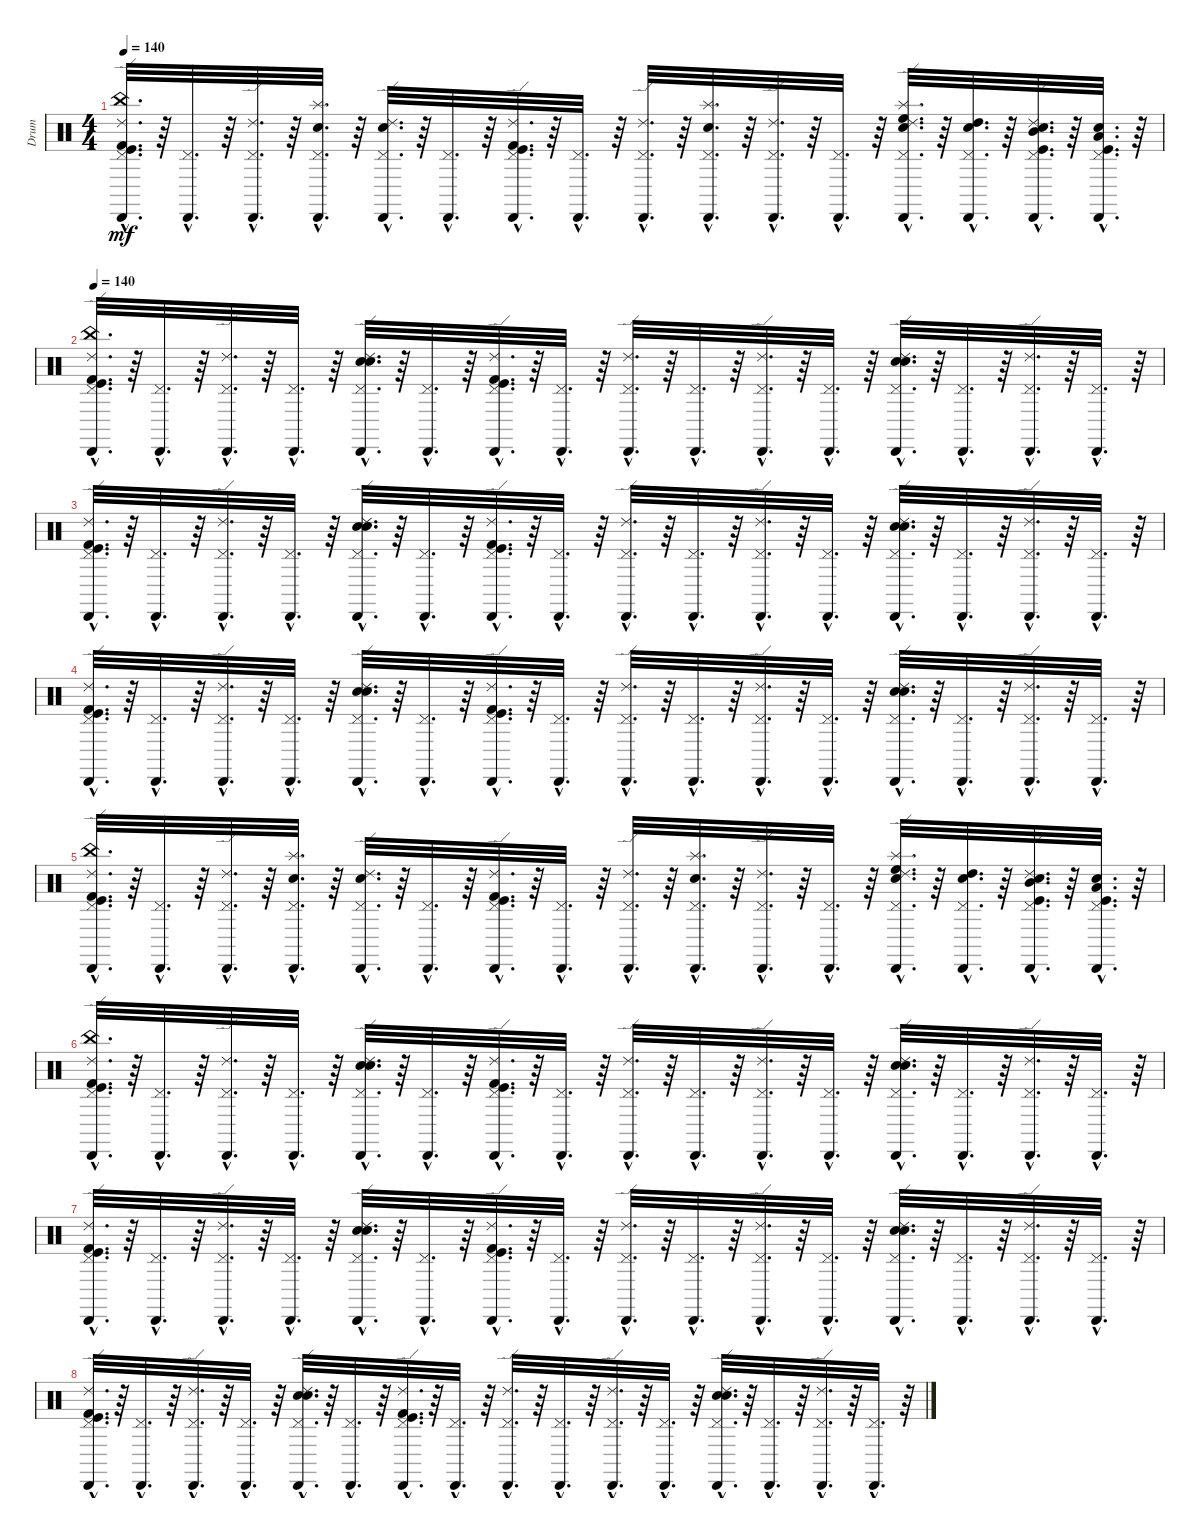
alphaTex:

\track ("Drum" "Drum") {instrument percussion}
\staff {score}
\articulation defaults
\ts (4 4)
\tempo 140
\clef neutral
\ks c
("China (hit)"{hac} "Cabasa (hit)"{hac} "Ride (edge) 2"{hac} "Kick (hit) 2"{hac} "Kick (hit)"{hac} "Pedal Hi-Hat (hit)"{hac}).32{d dy mf} r.64 ("Pedal Hi-Hat (hit)"{hac} "Cabasa (hit)"{hac}).32{d} r.64 ("Ride (edge) 2"{hac} "Cabasa (hit)"{hac} "Pedal Hi-Hat (hit)"{hac}).32{d} r.64 ("Splash (hit)"{hac} "Snare (hit) 2"{hac} "Pedal Hi-Hat (hit)"{hac} "Cabasa (hit)"{hac}).32{d} r.64 ("Snare (hit) 2"{hac} "Ride (edge) 2"{hac} "Cabasa (hit)"{hac} "Pedal Hi-Hat (hit)"{hac}).32{d} r.64 ("Cabasa (hit)"{hac} "Pedal Hi-Hat (hit)"{hac}).32{d} r.64 ("Ride (edge) 2"{hac} "Cabasa (hit)"{hac} "Kick (hit)"{hac} "Kick (hit) 2"{hac} "Pedal Hi-Hat (hit)"{hac}).32{d} r.64 ("Pedal Hi-Hat (hit)"{hac} "Cabasa (hit)"{hac}).32{d} r.64 ("Cabasa (hit)"{hac} "Pedal Hi-Hat (hit)"{hac} "Ride (edge) 2"{hac}).32{d} r.64 ("Splash (hit)"{hac} "Snare (hit) 2"{hac} "Pedal Hi-Hat (hit)"{hac} "Cabasa (hit)"{hac}).32{d} r.64 ("Pedal Hi-Hat (hit)"{hac} "Cabasa (hit)"{hac} "Ride (edge) 2"{hac}).32{d} r.64 ("Pedal Hi-Hat (hit)"{hac} "Cabasa (hit)"{hac}).32{d} r.64 ("High Floor Tom (hit)"{hac} "Splash (hit)"{hac} "Snare (hit) 2"{hac} "Ride (edge) 2"{hac} "Cabasa (hit)"{hac} "Pedal Hi-Hat (hit)"{hac}).32{d} r.64 ("High Tom (hit)"{hac} "Snare (hit) 2"{hac} "Pedal Hi-Hat (hit)"{hac} "Cabasa (hit)"{hac}).32{d} r.64 ("Kick (hit)"{hac} "Mid Tom (hit)"{hac} "Snare (hit) 2"{hac} "Ride (edge) 2"{hac} "Cabasa (hit)"{hac} "Pedal Hi-Hat (hit)"{hac}).32{d} r.64 ("Kick (hit)"{hac} "Low Tom (hit)"{hac} "Snare (hit) 2"{hac} "Pedal Hi-Hat (hit)"{hac} "Cabasa (hit)"{hac}).32{d} r.64 |
\tempo 140
("China (hit)"{hac} "Kick (hit) 2"{hac} "Kick (hit)"{hac} "Ride (edge) 2"{hac} "Cabasa (hit)"{hac} "Pedal Hi-Hat (hit)"{hac}).32{d} r.64 ("Cabasa (hit)"{hac} "Pedal Hi-Hat (hit)"{hac}).32{d} r.64 ("Ride (edge) 2"{hac} "Cabasa (hit)"{hac} "Pedal Hi-Hat (hit)"{hac}).32{d} r.64 ("Cabasa (hit)"{hac} "Pedal Hi-Hat (hit)"{hac}).32{d} r.64 ("Snare (hit) 2"{hac} "Electric Snare (hit)"{hac} "Ride (edge) 2"{hac} "Cabasa (hit)"{hac} "Pedal Hi-Hat (hit)"{hac}).32{d} r.64 ("Cabasa (hit)"{hac} "Pedal Hi-Hat (hit)"{hac}).32{d} r.64 ("Kick (hit)"{hac} "Kick (hit) 2"{hac} "Ride (edge) 2"{hac} "Cabasa (hit)"{hac} "Pedal Hi-Hat (hit)"{hac}).32{d} r.64 ("Cabasa (hit)"{hac} "Pedal Hi-Hat (hit)"{hac}).32{d} r.64 ("Ride (edge) 2"{hac} "Cabasa (hit)"{hac} "Pedal Hi-Hat (hit)"{hac}).32{d} r.64 ("Cabasa (hit)"{hac} "Pedal Hi-Hat (hit)"{hac}).32{d} r.64 ("Ride (edge) 2"{hac} "Cabasa (hit)"{hac} "Pedal Hi-Hat (hit)"{hac}).32{d} r.64 ("Cabasa (hit)"{hac} "Pedal Hi-Hat (hit)"{hac}).32{d} r.64 ("Electric Snare (hit)"{hac} "Snare (hit) 2"{hac} "Ride (edge) 2"{hac} "Cabasa (hit)"{hac} "Pedal Hi-Hat (hit)"{hac}).32{d} r.64 ("Cabasa (hit)"{hac} "Pedal Hi-Hat (hit)"{hac}).32{d} r.64 ("Ride (edge) 2"{hac} "Cabasa (hit)"{hac} "Pedal Hi-Hat (hit)"{hac}).32{d} r.64 ("Cabasa (hit)"{hac} "Pedal Hi-Hat (hit)"{hac}).32{d} r.64 |
("Pedal Hi-Hat (hit)"{hac} "Cabasa (hit)"{hac} "Ride (edge) 2"{hac} "Kick (hit)"{hac} "Kick (hit) 2"{hac}).32{d} r.64 ("Pedal Hi-Hat (hit)"{hac} "Cabasa (hit)"{hac}).32{d} r.64 ("Pedal Hi-Hat (hit)"{hac} "Cabasa (hit)"{hac} "Ride (edge) 2"{hac}).32{d} r.64 ("Pedal Hi-Hat (hit)"{hac} "Cabasa (hit)"{hac}).32{d} r.64 ("Pedal Hi-Hat (hit)"{hac} "Cabasa (hit)"{hac} "Ride (edge) 2"{hac} "Electric Snare (hit)"{hac} "Snare (hit) 2"{hac}).32{d} r.64 ("Pedal Hi-Hat (hit)"{hac} "Cabasa (hit)"{hac}).32{d} r.64 ("Pedal Hi-Hat (hit)"{hac} "Cabasa (hit)"{hac} "Ride (edge) 2"{hac} "Kick (hit) 2"{hac} "Kick (hit)"{hac}).32{d} r.64 ("Pedal Hi-Hat (hit)"{hac} "Cabasa (hit)"{hac}).32{d} r.64 ("Pedal Hi-Hat (hit)"{hac} "Cabasa (hit)"{hac} "Ride (edge) 2"{hac}).32{d} r.64 ("Pedal Hi-Hat (hit)"{hac} "Cabasa (hit)"{hac}).32{d} r.64 ("Pedal Hi-Hat (hit)"{hac} "Cabasa (hit)"{hac} "Ride (edge) 2"{hac}).32{d} r.64 ("Pedal Hi-Hat (hit)"{hac} "Cabasa (hit)"{hac}).32{d} r.64 ("Pedal Hi-Hat (hit)"{hac} "Cabasa (hit)"{hac} "Ride (edge) 2"{hac} "Snare (hit) 2"{hac} "Electric Snare (hit)"{hac}).32{d} r.64 ("Pedal Hi-Hat (hit)"{hac} "Cabasa (hit)"{hac}).32{d} r.64 ("Pedal Hi-Hat (hit)"{hac} "Cabasa (hit)"{hac} "Ride (edge) 2"{hac}).32{d} r.64 ("Pedal Hi-Hat (hit)"{hac} "Cabasa (hit)"{hac}).32{d} r.64 |
("Kick (hit) 2"{hac} "Kick (hit)"{hac} "Ride (edge) 2"{hac} "Cabasa (hit)"{hac} "Pedal Hi-Hat (hit)"{hac}).32{d} r.64 ("Cabasa (hit)"{hac} "Pedal Hi-Hat (hit)"{hac}).32{d} r.64 ("Ride (edge) 2"{hac} "Cabasa (hit)"{hac} "Pedal Hi-Hat (hit)"{hac}).32{d} r.64 ("Cabasa (hit)"{hac} "Pedal Hi-Hat (hit)"{hac}).32{d} r.64 ("Snare (hit) 2"{hac} "Electric Snare (hit)"{hac} "Ride (edge) 2"{hac} "Cabasa (hit)"{hac} "Pedal Hi-Hat (hit)"{hac}).32{d} r.64 ("Cabasa (hit)"{hac} "Pedal Hi-Hat (hit)"{hac}).32{d} r.64 ("Kick (hit)"{hac} "Kick (hit) 2"{hac} "Ride (edge) 2"{hac} "Cabasa (hit)"{hac} "Pedal Hi-Hat (hit)"{hac}).32{d} r.64 ("Cabasa (hit)"{hac} "Pedal Hi-Hat (hit)"{hac}).32{d} r.64 ("Ride (edge) 2"{hac} "Cabasa (hit)"{hac} "Pedal Hi-Hat (hit)"{hac}).32{d} r.64 ("Cabasa (hit)"{hac} "Pedal Hi-Hat (hit)"{hac}).32{d} r.64 ("Ride (edge) 2"{hac} "Cabasa (hit)"{hac} "Pedal Hi-Hat (hit)"{hac}).32{d} r.64 ("Cabasa (hit)"{hac} "Pedal Hi-Hat (hit)"{hac}).32{d} r.64 ("Electric Snare (hit)"{hac} "Snare (hit) 2"{hac} "Ride (edge) 2"{hac} "Cabasa (hit)"{hac} "Pedal Hi-Hat (hit)"{hac}).32{d} r.64 ("Cabasa (hit)"{hac} "Pedal Hi-Hat (hit)"{hac}).32{d} r.64 ("Ride (edge) 2"{hac} "Cabasa (hit)"{hac} "Pedal Hi-Hat (hit)"{hac}).32{d} r.64 ("Cabasa (hit)"{hac} "Pedal Hi-Hat (hit)"{hac}).32{d} r.64 |
("Kick (hit) 2"{hac} "Pedal Hi-Hat (hit)"{hac} "Cabasa (hit)"{hac} "Ride (edge) 2"{hac} "China (hit)"{hac} "Kick (hit)"{hac}).32{d} r.64 ("Pedal Hi-Hat (hit)"{hac} "Cabasa (hit)"{hac}).32{d} r.64 ("Cabasa (hit)"{hac} "Ride (edge) 2"{hac} "Pedal Hi-Hat (hit)"{hac}).32{d} r.64 ("Pedal Hi-Hat (hit)"{hac} "Cabasa (hit)"{hac} "Snare (hit) 2"{hac} "Splash (hit)"{hac}).32{d} r.64 ("Ride (edge) 2"{hac} "Snare (hit) 2"{hac} "Pedal Hi-Hat (hit)"{hac} "Cabasa (hit)"{hac}).32{d} r.64 ("Pedal Hi-Hat (hit)"{hac} "Cabasa (hit)"{hac}).32{d} r.64 ("Ride (edge) 2"{hac} "Cabasa (hit)"{hac} "Kick (hit)"{hac} "Kick (hit) 2"{hac} "Pedal Hi-Hat (hit)"{hac}).32{d} r.64 ("Cabasa (hit)"{hac} "Pedal Hi-Hat (hit)"{hac}).32{d} r.64 ("Pedal Hi-Hat (hit)"{hac} "Ride (edge) 2"{hac} "Cabasa (hit)"{hac}).32{d} r.64 ("Pedal Hi-Hat (hit)"{hac} "Splash (hit)"{hac} "Cabasa (hit)"{hac} "Snare (hit) 2"{hac}).32{d} r.64 ("Cabasa (hit)"{hac} "Ride (edge) 2"{hac} "Pedal Hi-Hat (hit)"{hac}).32{d} r.64 ("Cabasa (hit)"{hac} "Pedal Hi-Hat (hit)"{hac}).32{d} r.64 ("Ride (edge) 2"{hac} "Cabasa (hit)"{hac} "Snare (hit) 2"{hac} "High Floor Tom (hit)"{hac} "Splash (hit)"{hac} "Pedal Hi-Hat (hit)"{hac}).32{d} r.64 ("Cabasa (hit)"{hac} "Snare (hit) 2"{hac} "Pedal Hi-Hat (hit)"{hac} "High Tom (hit)"{hac}).32{d} r.64 ("Mid Tom (hit)"{hac} "Ride (edge) 2"{hac} "Snare (hit) 2"{hac} "Cabasa (hit)"{hac} "Kick (hit)"{hac} "Pedal Hi-Hat (hit)"{hac}).32{d} r.64 ("Low Tom (hit)"{hac} "Kick (hit)"{hac} "Snare (hit) 2"{hac} "Cabasa (hit)"{hac} "Pedal Hi-Hat (hit)"{hac}).32{d} r.64 |
("China (hit)"{hac} "Kick (hit) 2"{hac} "Pedal Hi-Hat (hit)"{hac} "Cabasa (hit)"{hac} "Kick (hit)"{hac} "Ride (edge) 2"{hac}).32{d} r.64 ("Cabasa (hit)"{hac} "Pedal Hi-Hat (hit)"{hac}).32{d} r.64 ("Pedal Hi-Hat (hit)"{hac} "Ride (edge) 2"{hac} "Cabasa (hit)"{hac}).32{d} r.64 ("Cabasa (hit)"{hac} "Pedal Hi-Hat (hit)"{hac}).32{d} r.64 ("Cabasa (hit)"{hac} "Pedal Hi-Hat (hit)"{hac} "Electric Snare (hit)"{hac} "Snare (hit) 2"{hac} "Ride (edge) 2"{hac}).32{d} r.64 ("Cabasa (hit)"{hac} "Pedal Hi-Hat (hit)"{hac}).32{d} r.64 ("Kick (hit)"{hac} "Cabasa (hit)"{hac} "Pedal Hi-Hat (hit)"{hac} "Ride (edge) 2"{hac} "Kick (hit) 2"{hac}).32{d} r.64 ("Pedal Hi-Hat (hit)"{hac} "Cabasa (hit)"{hac}).32{d} r.64 ("Pedal Hi-Hat (hit)"{hac} "Cabasa (hit)"{hac} "Ride (edge) 2"{hac}).32{d} r.64 ("Cabasa (hit)"{hac} "Pedal Hi-Hat (hit)"{hac}).32{d} r.64 ("Cabasa (hit)"{hac} "Ride (edge) 2"{hac} "Pedal Hi-Hat (hit)"{hac}).32{d} r.64 ("Cabasa (hit)"{hac} "Pedal Hi-Hat (hit)"{hac}).32{d} r.64 ("Ride (edge) 2"{hac} "Pedal Hi-Hat (hit)"{hac} "Cabasa (hit)"{hac} "Electric Snare (hit)"{hac} "Snare (hit) 2"{hac}).32{d} r.64 ("Pedal Hi-Hat (hit)"{hac} "Cabasa (hit)"{hac}).32{d} r.64 ("Cabasa (hit)"{hac} "Ride (edge) 2"{hac} "Pedal Hi-Hat (hit)"{hac}).32{d} r.64 ("Cabasa (hit)"{hac} "Pedal Hi-Hat (hit)"{hac}).32{d} r.64 |
("Pedal Hi-Hat (hit)"{hac} "Kick (hit) 2"{hac} "Cabasa (hit)"{hac} "Kick (hit)"{hac} "Ride (edge) 2"{hac}).32{d} r.64 ("Cabasa (hit)"{hac} "Pedal Hi-Hat (hit)"{hac}).32{d} r.64 ("Ride (edge) 2"{hac} "Pedal Hi-Hat (hit)"{hac} "Cabasa (hit)"{hac}).32{d} r.64 ("Pedal Hi-Hat (hit)"{hac} "Cabasa (hit)"{hac}).32{d} r.64 ("Snare (hit) 2"{hac} "Electric Snare (hit)"{hac} "Ride (edge) 2"{hac} "Cabasa (hit)"{hac} "Pedal Hi-Hat (hit)"{hac}).32{d} r.64 ("Pedal Hi-Hat (hit)"{hac} "Cabasa (hit)"{hac}).32{d} r.64 ("Kick (hit) 2"{hac} "Pedal Hi-Hat (hit)"{hac} "Kick (hit)"{hac} "Cabasa (hit)"{hac} "Ride (edge) 2"{hac}).32{d} r.64 ("Cabasa (hit)"{hac} "Pedal Hi-Hat (hit)"{hac}).32{d} r.64 ("Cabasa (hit)"{hac} "Pedal Hi-Hat (hit)"{hac} "Ride (edge) 2"{hac}).32{d} r.64 ("Pedal Hi-Hat (hit)"{hac} "Cabasa (hit)"{hac}).32{d} r.64 ("Ride (edge) 2"{hac} "Cabasa (hit)"{hac} "Pedal Hi-Hat (hit)"{hac}).32{d} r.64 ("Pedal Hi-Hat (hit)"{hac} "Cabasa (hit)"{hac}).32{d} r.64 ("Cabasa (hit)"{hac} "Snare (hit) 2"{hac} "Pedal Hi-Hat (hit)"{hac} "Ride (edge) 2"{hac} "Electric Snare (hit)"{hac}).32{d} r.64 ("Cabasa (hit)"{hac} "Pedal Hi-Hat (hit)"{hac}).32{d} r.64 ("Ride (edge) 2"{hac} "Cabasa (hit)"{hac} "Pedal Hi-Hat (hit)"{hac}).32{d} r.64 ("Pedal Hi-Hat (hit)"{hac} "Cabasa (hit)"{hac}).32{d} r.64 |
("Cabasa (hit)"{hac} "Pedal Hi-Hat (hit)"{hac} "Ride (edge) 2"{hac} "Kick (hit) 2"{hac} "Kick (hit)"{hac}).32{d} r.64 ("Pedal Hi-Hat (hit)"{hac} "Cabasa (hit)"{hac}).32{d} r.64 ("Pedal Hi-Hat (hit)"{hac} "Cabasa (hit)"{hac} "Ride (edge) 2"{hac}).32{d} r.64 ("Pedal Hi-Hat (hit)"{hac} "Cabasa (hit)"{hac}).32{d} r.64 ("Cabasa (hit)"{hac} "Pedal Hi-Hat (hit)"{hac} "Ride (edge) 2"{hac} "Snare (hit) 2"{hac} "Electric Snare (hit)"{hac}).32{d} r.64 ("Pedal Hi-Hat (hit)"{hac} "Cabasa (hit)"{hac}).32{d} r.64 ("Kick (hit) 2"{hac} "Cabasa (hit)"{hac} "Ride (edge) 2"{hac} "Kick (hit)"{hac} "Pedal Hi-Hat (hit)"{hac}).32{d} r.64 ("Pedal Hi-Hat (hit)"{hac} "Cabasa (hit)"{hac}).32{d} r.64 ("Pedal Hi-Hat (hit)"{hac} "Ride (edge) 2"{hac} "Cabasa (hit)"{hac}).32{d} r.64 ("Pedal Hi-Hat (hit)"{hac} "Cabasa (hit)"{hac}).32{d} r.64 ("Pedal Hi-Hat (hit)"{hac} "Cabasa (hit)"{hac} "Ride (edge) 2"{hac}).32{d} r.64 ("Pedal Hi-Hat (hit)"{hac} "Cabasa (hit)"{hac}).32{d} r.64 ("Ride (edge) 2"{hac} "Cabasa (hit)"{hac} "Pedal Hi-Hat (hit)"{hac} "Snare (hit) 2"{hac} "Electric Snare (hit)"{hac}).32{d} r.64 ("Pedal Hi-Hat (hit)"{hac} "Cabasa (hit)"{hac}).32{d} r.64 ("Pedal Hi-Hat (hit)"{hac} "Cabasa (hit)"{hac} "Ride (edge) 2"{hac}).32{d} r.64 ("Pedal Hi-Hat (hit)"{hac} "Cabasa (hit)"{hac}).32{d} r.64
